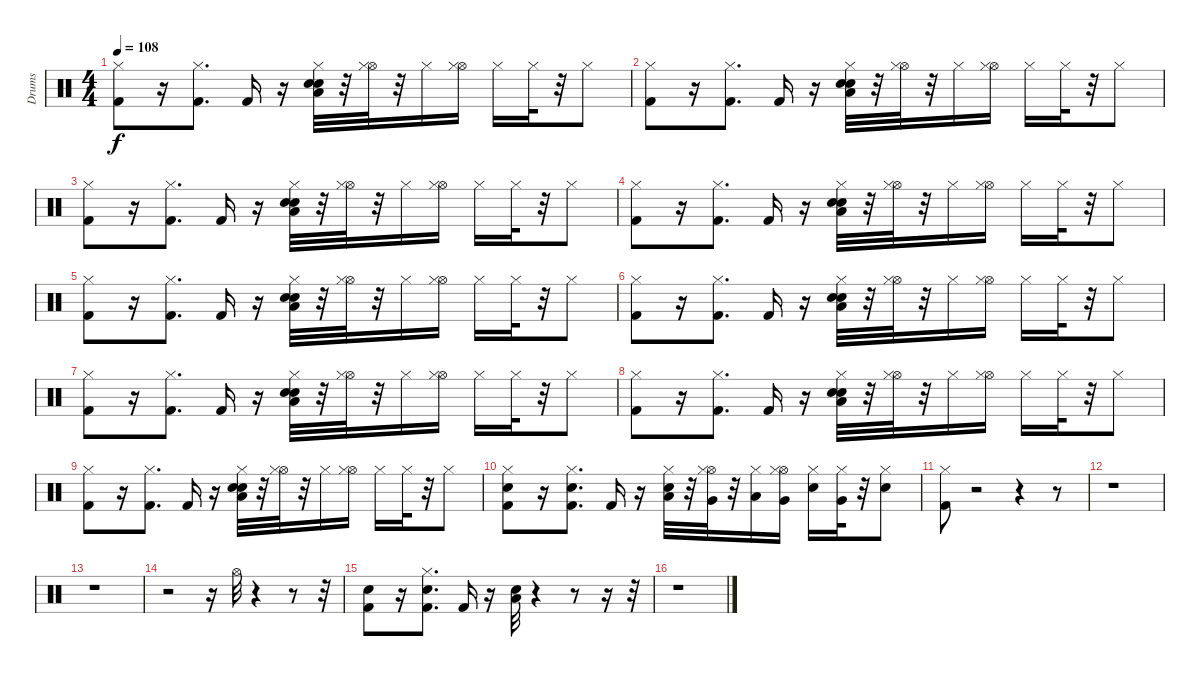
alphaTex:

\track ("Drums" "Drums") {instrument percussion}
\staff {score}
\articulation defaults
\ts (4 4)
\tempo 108
\clef neutral
\ks c
("Hi-Hat (closed)" "Kick (hit) 2").8{dy f} r.16 ("Kick (hit) 2" "Hi-Hat (closed)").8{d} "Kick (hit) 2".16 r.16 ("Low Floor Tom (hit)" "Electric Snare (hit)" "Snare (hit) 2" "Hi-Hat (closed)").32 r.32 ("Hi-Hat (open)" "Hi-Hat (closed)").32 r.32 "Hi-Hat (closed)".16 ("Hi-Hat (open)" "Hi-Hat (closed)").16 "Hi-Hat (closed)".16 "Hi-Hat (closed)".32 r.32 "Hi-Hat (closed)".8 |
("Hi-Hat (closed)" "Kick (hit) 2").8 r.16 ("Kick (hit) 2" "Hi-Hat (closed)").8{d} "Kick (hit) 2".16 r.16 ("Low Floor Tom (hit)" "Electric Snare (hit)" "Snare (hit) 2" "Hi-Hat (closed)").32 r.32 ("Hi-Hat (open)" "Hi-Hat (closed)").32 r.32 "Hi-Hat (closed)".16 ("Hi-Hat (open)" "Hi-Hat (closed)").16 "Hi-Hat (closed)".16 "Hi-Hat (closed)".32 r.32 "Hi-Hat (closed)".8 |
("Hi-Hat (closed)" "Kick (hit) 2").8 r.16 ("Kick (hit) 2" "Hi-Hat (closed)").8{d} "Kick (hit) 2".16 r.16 ("Low Floor Tom (hit)" "Electric Snare (hit)" "Snare (hit) 2" "Hi-Hat (closed)").32 r.32 ("Hi-Hat (open)" "Hi-Hat (closed)").32 r.32 "Hi-Hat (closed)".16 ("Hi-Hat (open)" "Hi-Hat (closed)").16 "Hi-Hat (closed)".16 "Hi-Hat (closed)".32 r.32 "Hi-Hat (closed)".8 |
("Hi-Hat (closed)" "Kick (hit) 2").8 r.16 ("Kick (hit) 2" "Hi-Hat (closed)").8{d} "Kick (hit) 2".16 r.16 ("Low Floor Tom (hit)" "Electric Snare (hit)" "Snare (hit) 2" "Hi-Hat (closed)").32 r.32 ("Hi-Hat (open)" "Hi-Hat (closed)").32 r.32 "Hi-Hat (closed)".16 ("Hi-Hat (open)" "Hi-Hat (closed)").16 "Hi-Hat (closed)".16 "Hi-Hat (closed)".32 r.32 "Hi-Hat (closed)".8 |
("Hi-Hat (closed)" "Kick (hit) 2").8 r.16 ("Kick (hit) 2" "Hi-Hat (closed)").8{d} "Kick (hit) 2".16 r.16 ("Low Floor Tom (hit)" "Electric Snare (hit)" "Snare (hit) 2" "Hi-Hat (closed)").32 r.32 ("Hi-Hat (open)" "Hi-Hat (closed)").32 r.32 "Hi-Hat (closed)".16 ("Hi-Hat (open)" "Hi-Hat (closed)").16 "Hi-Hat (closed)".16 "Hi-Hat (closed)".32 r.32 "Hi-Hat (closed)".8 |
("Hi-Hat (closed)" "Kick (hit) 2").8 r.16 ("Kick (hit) 2" "Hi-Hat (closed)").8{d} "Kick (hit) 2".16 r.16 ("Low Floor Tom (hit)" "Electric Snare (hit)" "Snare (hit) 2" "Hi-Hat (closed)").32 r.32 ("Hi-Hat (open)" "Hi-Hat (closed)").32 r.32 "Hi-Hat (closed)".16 ("Hi-Hat (open)" "Hi-Hat (closed)").16 "Hi-Hat (closed)".16 "Hi-Hat (closed)".32 r.32 "Hi-Hat (closed)".8 |
("Hi-Hat (closed)" "Kick (hit) 2").8 r.16 ("Kick (hit) 2" "Hi-Hat (closed)").8{d} "Kick (hit) 2".16 r.16 ("Low Floor Tom (hit)" "Electric Snare (hit)" "Snare (hit) 2" "Hi-Hat (closed)").32 r.32 ("Hi-Hat (open)" "Hi-Hat (closed)").32 r.32 "Hi-Hat (closed)".16 ("Hi-Hat (open)" "Hi-Hat (closed)").16 "Hi-Hat (closed)".16 "Hi-Hat (closed)".32 r.32 "Hi-Hat (closed)".8 |
("Hi-Hat (closed)" "Kick (hit) 2").8 r.16 ("Kick (hit) 2" "Hi-Hat (closed)").8{d} "Kick (hit) 2".16 r.16 ("Low Floor Tom (hit)" "Electric Snare (hit)" "Snare (hit) 2" "Hi-Hat (closed)").32 r.32 ("Hi-Hat (open)" "Hi-Hat (closed)").32 r.32 "Hi-Hat (closed)".16 ("Hi-Hat (open)" "Hi-Hat (closed)").16 "Hi-Hat (closed)".16 "Hi-Hat (closed)".32 r.32 "Hi-Hat (closed)".8 |
("Hi-Hat (closed)" "Kick (hit) 2").8 r.16 ("Kick (hit) 2" "Hi-Hat (closed)").8{d} "Kick (hit) 2".16 r.16 ("Low Floor Tom (hit)" "Electric Snare (hit)" "Snare (hit) 2" "Hi-Hat (closed)").32 r.32 ("Hi-Hat (open)" "Hi-Hat (closed)").32 r.32 "Hi-Hat (closed)".16 ("Hi-Hat (open)" "Hi-Hat (closed)").16 "Hi-Hat (closed)".16 "Hi-Hat (closed)".32 r.32 "Hi-Hat (closed)".8 |
("Kick (hit) 2" "Snare (hit) 2" "Hi-Hat (closed)").8 r.16 ("Kick (hit) 2" "Electric Snare (hit)" "Hi-Hat (closed)").8{d} "Kick (hit) 2".16 r.16 ("Snare (hit) 2" "Low Tom (hit)" "Hi-Hat (closed)").32 r.32 ("Very Low Tom (hit)" "Hi-Hat (open)" "Hi-Hat (closed)").32 r.32 ("Hi-Hat (closed)" "Low Floor Tom (hit)").16 ("Hi-Hat (open)" "Very Low Tom (hit)" "Hi-Hat (closed)").16 ("Electric Snare (hit)" "Hi-Hat (closed)").16 ("Very Low Tom (hit)" "Hi-Hat (closed)").32 r.32 ("Snare (hit) 2" "Hi-Hat (closed)").8 |
("Hi-Hat (closed)" "Kick (hit) 2").8 r.2 r.4 r.8 |
r.1 |
r.1 |
r.2 r.16 "Hi-Hat (open)".32 r.4 r.8 r.32 |
("Kick (hit) 2" "Snare (hit) 2").8 r.16 ("Kick (hit) 2" "Electric Snare (hit)" "Hi-Hat (closed)").8{d} "Kick (hit) 2".16 r.16 ("Snare (hit) 2" "Low Tom (hit)").32 r.4 r.8 r.16 r.32 |
r.1
